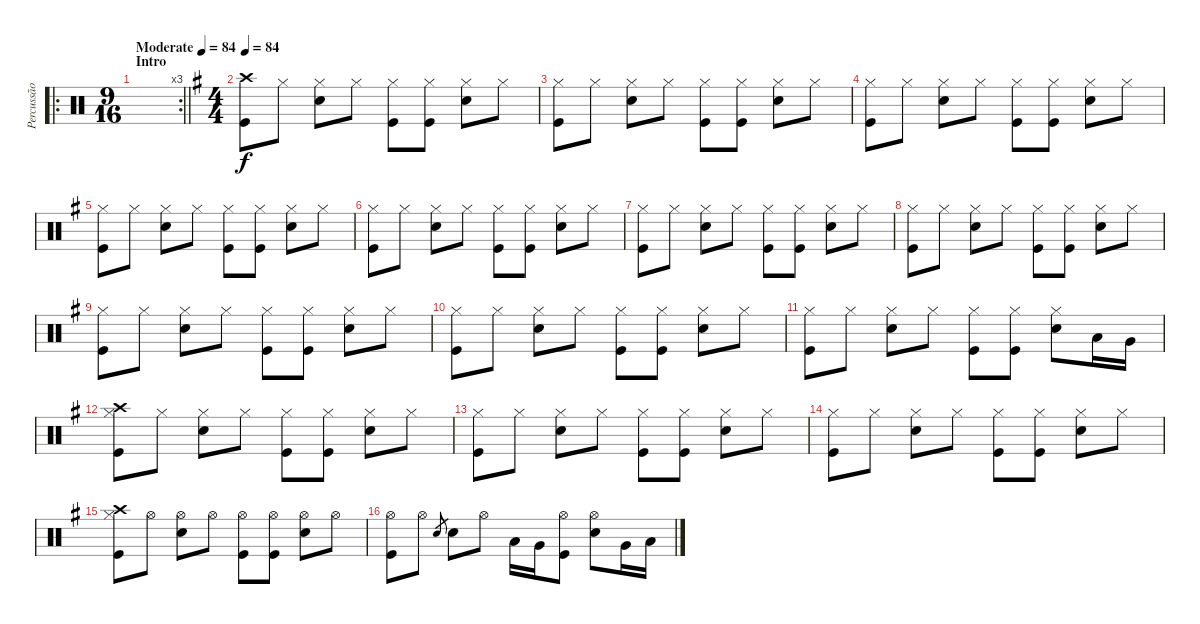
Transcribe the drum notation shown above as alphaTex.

\track ("Percussão" "Percussão") {instrument percussion}
\staff {score}
\articulation defaults
\ro
\rc 3
\ts (9 16)
\section ("" "Intro")
\tempo (84 "Moderate")
\tempo 37
\tempo (84 "Moderate")
\clef neutral
\barLineRight lightlight
\ks c
|
\ts (4 4)
\tempo 84
\ks g
("Crash high (hit)" "Kick (hit)").8 "Hi-Hat (closed)".8 ("Hi-Hat (closed)" "Snare (hit) 2").8 "Hi-Hat (closed)".8 ("Hi-Hat (closed)" "Kick (hit)").8 ("Hi-Hat (closed)" "Kick (hit)").8 ("Hi-Hat (closed)" "Snare (hit) 2").8 "Hi-Hat (closed)".8 |
("Hi-Hat (closed)" "Kick (hit)").8 "Hi-Hat (closed)".8 ("Hi-Hat (closed)" "Snare (hit) 2").8 "Hi-Hat (closed)".8 ("Hi-Hat (closed)" "Kick (hit)").8 ("Hi-Hat (closed)" "Kick (hit)").8 ("Hi-Hat (closed)" "Snare (hit) 2").8 "Hi-Hat (closed)".8 |
("Hi-Hat (closed)" "Kick (hit)").8 "Hi-Hat (closed)".8 ("Hi-Hat (closed)" "Snare (hit) 2").8 "Hi-Hat (closed)".8 ("Hi-Hat (closed)" "Kick (hit)").8 ("Hi-Hat (closed)" "Kick (hit)").8 ("Hi-Hat (closed)" "Snare (hit) 2").8 "Hi-Hat (closed)".8 |
("Hi-Hat (closed)" "Kick (hit)").8 "Hi-Hat (closed)".8 ("Hi-Hat (closed)" "Snare (hit) 2").8 "Hi-Hat (closed)".8 ("Hi-Hat (closed)" "Kick (hit)").8 ("Hi-Hat (closed)" "Kick (hit)").8 ("Hi-Hat (closed)" "Snare (hit) 2").8 "Hi-Hat (closed)".8 |
("Hi-Hat (closed)" "Kick (hit)").8 "Hi-Hat (closed)".8 ("Hi-Hat (closed)" "Snare (hit) 2").8 "Hi-Hat (closed)".8 ("Hi-Hat (closed)" "Kick (hit)").8 ("Hi-Hat (closed)" "Kick (hit)").8 ("Hi-Hat (closed)" "Snare (hit) 2").8 "Hi-Hat (closed)".8 |
("Hi-Hat (closed)" "Kick (hit)").8 "Hi-Hat (closed)".8 ("Hi-Hat (closed)" "Snare (hit) 2").8 "Hi-Hat (closed)".8 ("Hi-Hat (closed)" "Kick (hit)").8 ("Hi-Hat (closed)" "Kick (hit)").8 ("Hi-Hat (closed)" "Snare (hit) 2").8 "Hi-Hat (closed)".8 |
("Hi-Hat (closed)" "Kick (hit)").8 "Hi-Hat (closed)".8 ("Hi-Hat (closed)" "Snare (hit) 2").8 "Hi-Hat (closed)".8 ("Hi-Hat (closed)" "Kick (hit)").8 ("Hi-Hat (closed)" "Kick (hit)").8 ("Hi-Hat (closed)" "Snare (hit) 2").8 "Hi-Hat (closed)".8 |
("Hi-Hat (closed)" "Kick (hit)").8 "Hi-Hat (closed)".8 ("Hi-Hat (closed)" "Snare (hit) 2").8 "Hi-Hat (closed)".8 ("Hi-Hat (closed)" "Kick (hit)").8 ("Hi-Hat (closed)" "Kick (hit)").8 ("Hi-Hat (closed)" "Snare (hit) 2").8 "Hi-Hat (closed)".8 |
("Hi-Hat (closed)" "Kick (hit)").8 "Hi-Hat (closed)".8 ("Hi-Hat (closed)" "Snare (hit) 2").8 "Hi-Hat (closed)".8 ("Hi-Hat (closed)" "Kick (hit)").8 ("Hi-Hat (closed)" "Kick (hit)").8 ("Hi-Hat (closed)" "Snare (hit) 2").8 "Hi-Hat (closed)".8 |
("Hi-Hat (closed)" "Kick (hit)").8 "Hi-Hat (closed)".8 ("Hi-Hat (closed)" "Snare (hit) 2").8 "Hi-Hat (closed)".8 ("Hi-Hat (closed)" "Kick (hit)").8 ("Hi-Hat (closed)" "Kick (hit)").8 ("Hi-Hat (closed)" "Snare (hit) 2").8 "Low Tom (hit)".16 "Very Low Tom (hit)".16 |
("Crash high (hit)" "Hi-Hat (closed)" "Kick (hit)").8 "Hi-Hat (closed)".8 ("Hi-Hat (closed)" "Snare (hit) 2").8 "Hi-Hat (closed)".8 ("Hi-Hat (closed)" "Kick (hit)").8 ("Hi-Hat (closed)" "Kick (hit)").8 ("Hi-Hat (closed)" "Snare (hit) 2").8 "Hi-Hat (closed)".8 |
("Hi-Hat (closed)" "Kick (hit)").8 "Hi-Hat (closed)".8 ("Hi-Hat (closed)" "Snare (hit) 2").8 "Hi-Hat (closed)".8 ("Hi-Hat (closed)" "Kick (hit)").8 ("Hi-Hat (closed)" "Kick (hit)").8 ("Hi-Hat (closed)" "Snare (hit) 2").8 "Hi-Hat (closed)".8 |
("Hi-Hat (closed)" "Kick (hit)").8 "Hi-Hat (closed)".8 ("Hi-Hat (closed)" "Snare (hit) 2").8 "Hi-Hat (closed)".8 ("Hi-Hat (closed)" "Kick (hit)").8 ("Hi-Hat (closed)" "Kick (hit)").8 ("Hi-Hat (closed)" "Snare (hit) 2").8 "Hi-Hat (closed)".8 |
("Crash high (hit)" "Hi-Hat (closed)" "Kick (hit)").8 "Hi-Hat (open)".8 ("Hi-Hat (open)" "Snare (hit) 2").8 "Hi-Hat (open)".8 ("Hi-Hat (open)" "Kick (hit)").8 ("Hi-Hat (open)" "Kick (hit)").8 ("Hi-Hat (open)" "Snare (hit) 2").8 "Hi-Hat (open)".8 |
("Hi-Hat (open)" "Kick (hit)").8 "Hi-Hat (open)".8 "Snare (hit) 2".8{gr} "Snare (hit) 2".8 "Hi-Hat (open)".8 "Low Tom (hit)".16 "Very Low Tom (hit)".16 ("Hi-Hat (open)" "Kick (hit)").8 ("Hi-Hat (open)" "Snare (hit) 2").8 "Very Low Tom (hit)".16 "Low Floor Tom (hit)".16
